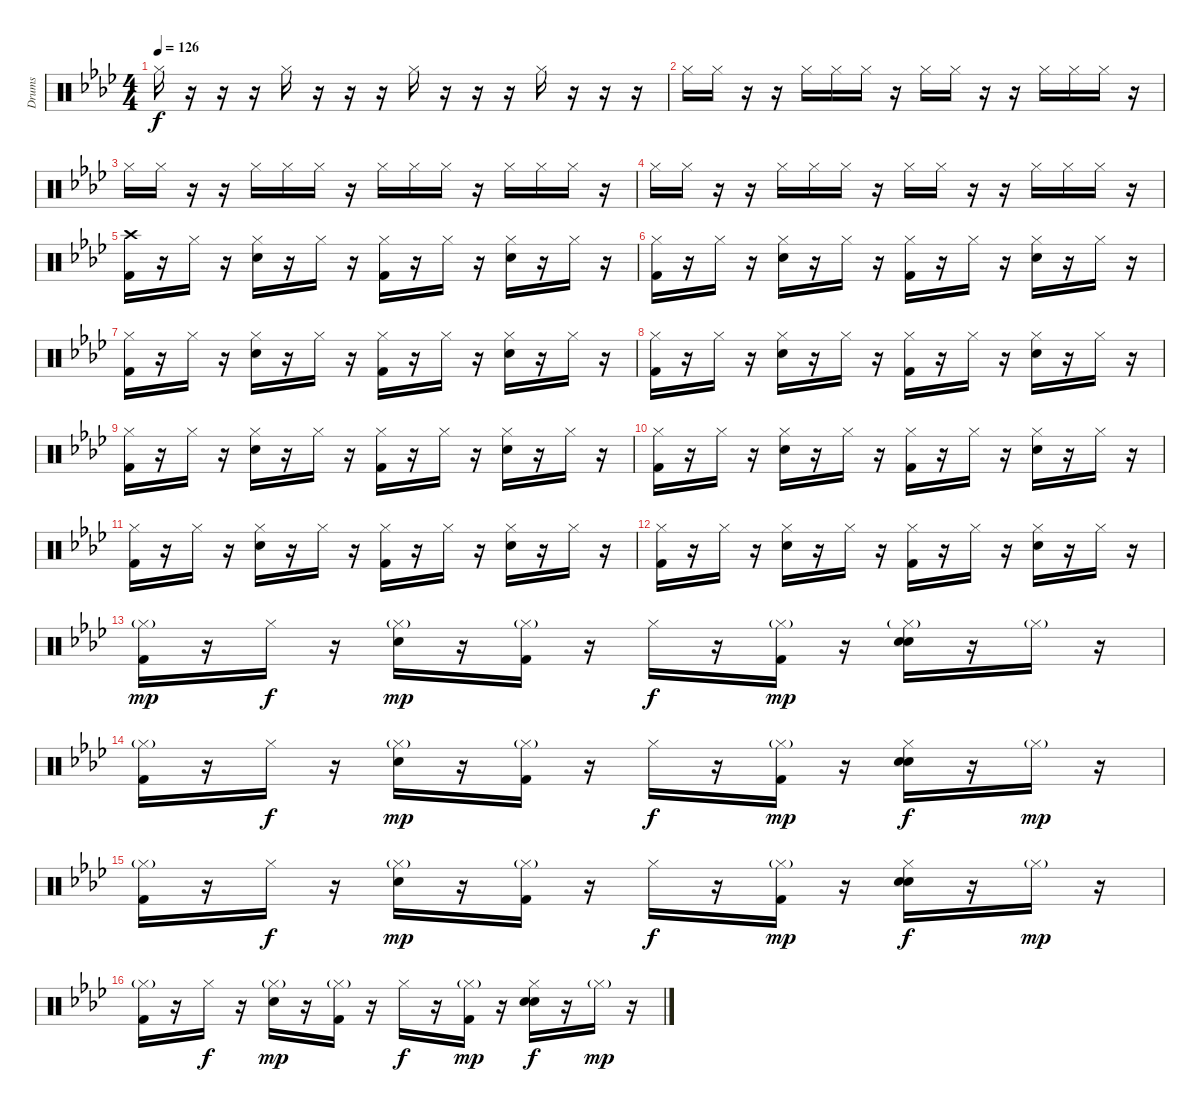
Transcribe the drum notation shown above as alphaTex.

\track ("Drums" "Drums") {instrument percussion}
\staff {score}
\articulation defaults
\ts (4 4)
\tempo 126
\clef neutral
\ks ab "Hi-Hat (closed)".16{dy f}
r.16 r.16 r.16 "Hi-Hat (closed)".16 r.16 r.16 r.16 "Hi-Hat (closed)".16 r.16 r.16 r.16 "Hi-Hat (closed)".16 r.16 r.16 r.16 |
"Hi-Hat (closed)".16 "Hi-Hat (closed)".16 r.16 r.16 "Hi-Hat (closed)".16 "Hi-Hat (closed)".16 "Hi-Hat (closed)".16 r.16 "Hi-Hat (closed)".16 "Hi-Hat (closed)".16 r.16 r.16 "Hi-Hat (closed)".16 "Hi-Hat (closed)".16 "Hi-Hat (closed)".16 r.16 |
"Hi-Hat (closed)".16 "Hi-Hat (closed)".16 r.16 r.16 "Hi-Hat (closed)".16 "Hi-Hat (closed)".16 "Hi-Hat (closed)".16 r.16 "Hi-Hat (closed)".16 "Hi-Hat (closed)".16 "Hi-Hat (closed)".16 r.16 "Hi-Hat (closed)".16 "Hi-Hat (closed)".16 "Hi-Hat (closed)".16 r.16 |
"Hi-Hat (closed)".16 "Hi-Hat (closed)".16 r.16 r.16 "Hi-Hat (closed)".16 "Hi-Hat (closed)".16 "Hi-Hat (closed)".16 r.16 "Hi-Hat (closed)".16 "Hi-Hat (closed)".16 r.16 r.16 "Hi-Hat (closed)".16 "Hi-Hat (closed)".16 "Hi-Hat (closed)".16 r.16 |
("Crash high (hit)" "Kick (hit) 2").16 r.16 "Hi-Hat (closed)".16 r.16 ("Hi-Hat (closed)" "Snare (hit) 2").16 r.16 "Hi-Hat (closed)".16 r.16 ("Hi-Hat (closed)" "Kick (hit) 2").16 r.16 "Hi-Hat (closed)".16 r.16 ("Hi-Hat (closed)" "Snare (hit) 2").16 r.16 "Hi-Hat (closed)".16 r.16 |
("Hi-Hat (closed)" "Kick (hit) 2").16 r.16 "Hi-Hat (closed)".16 r.16 ("Hi-Hat (closed)" "Snare (hit) 2").16 r.16 "Hi-Hat (closed)".16 r.16 ("Hi-Hat (closed)" "Kick (hit) 2").16 r.16 "Hi-Hat (closed)".16 r.16 ("Hi-Hat (closed)" "Snare (hit) 2").16 r.16 "Hi-Hat (closed)".16 r.16 |
("Hi-Hat (closed)" "Kick (hit) 2").16 r.16 "Hi-Hat (closed)".16 r.16 ("Hi-Hat (closed)" "Snare (hit) 2").16 r.16 "Hi-Hat (closed)".16 r.16 ("Hi-Hat (closed)" "Kick (hit) 2").16 r.16 "Hi-Hat (closed)".16 r.16 ("Hi-Hat (closed)" "Snare (hit) 2").16 r.16 "Hi-Hat (closed)".16 r.16 |
("Hi-Hat (closed)" "Kick (hit) 2").16 r.16 "Hi-Hat (closed)".16 r.16 ("Hi-Hat (closed)" "Snare (hit) 2").16 r.16 "Hi-Hat (closed)".16 r.16 ("Hi-Hat (closed)" "Kick (hit) 2").16 r.16 "Hi-Hat (closed)".16 r.16 ("Hi-Hat (closed)" "Snare (hit) 2").16 r.16 "Hi-Hat (closed)".16 r.16 |
("Hi-Hat (closed)" "Kick (hit) 2").16 r.16 "Hi-Hat (closed)".16 r.16 ("Hi-Hat (closed)" "Snare (hit) 2").16 r.16 "Hi-Hat (closed)".16 r.16 ("Hi-Hat (closed)" "Kick (hit) 2").16 r.16 "Hi-Hat (closed)".16 r.16 ("Hi-Hat (closed)" "Snare (hit) 2").16 r.16 "Hi-Hat (closed)".16 r.16 |
("Hi-Hat (closed)" "Kick (hit) 2").16 r.16 "Hi-Hat (closed)".16 r.16 ("Hi-Hat (closed)" "Snare (hit) 2").16 r.16 "Hi-Hat (closed)".16 r.16 ("Hi-Hat (closed)" "Kick (hit) 2").16 r.16 "Hi-Hat (closed)".16 r.16 ("Hi-Hat (closed)" "Snare (hit) 2").16 r.16 "Hi-Hat (closed)".16 r.16 |
("Hi-Hat (closed)" "Kick (hit) 2").16 r.16 "Hi-Hat (closed)".16 r.16 ("Hi-Hat (closed)" "Snare (hit) 2").16 r.16 "Hi-Hat (closed)".16 r.16 ("Hi-Hat (closed)" "Kick (hit) 2").16 r.16 "Hi-Hat (closed)".16 r.16 ("Hi-Hat (closed)" "Snare (hit) 2").16 r.16 "Hi-Hat (closed)".16 r.16 |
("Hi-Hat (closed)" "Kick (hit) 2").16 r.16 "Hi-Hat (closed)".16 r.16 ("Hi-Hat (closed)" "Snare (hit) 2").16 r.16 "Hi-Hat (closed)".16 r.16 ("Hi-Hat (closed)" "Kick (hit) 2").16 r.16 "Hi-Hat (closed)".16 r.16 ("Hi-Hat (closed)" "Snare (hit) 2").16 r.16 "Hi-Hat (closed)".16 r.16 |
("Hi-Hat (closed)"{g} "Kick (hit) 2").16{dy mp} r.16 "Hi-Hat (closed)".16{dy f} r.16 ("Hi-Hat (closed)"{g} "Snare (hit) 2").16{dy mp} r.16 ("Hi-Hat (closed)"{g} "Kick (hit) 2").16 r.16 "Hi-Hat (closed)".16{dy f} r.16 ("Hi-Hat (closed)"{g} "Kick (hit) 2").16{dy mp} r.16 ("Hi-Hat (closed)"{g} "Hand Clap (hit)" "Snare (hit) 2").16 r.16 "Hi-Hat (closed)"{g}.16 r.16 |
("Hi-Hat (closed)"{g} "Kick (hit) 2").16 r.16 "Hi-Hat (closed)".16{dy f} r.16 ("Hi-Hat (closed)"{g} "Snare (hit) 2").16{dy mp} r.16 ("Hi-Hat (closed)"{g} "Kick (hit) 2").16 r.16 "Hi-Hat (closed)".16{dy f} r.16 ("Hi-Hat (closed)"{g} "Kick (hit) 2").16{dy mp} r.16 ("Hi-Hat (closed)" "Hand Clap (hit)" "Snare (hit) 2").16{dy f} r.16 "Hi-Hat (closed)"{g}.16{dy mp} r.16 |
("Hi-Hat (closed)"{g} "Kick (hit) 2").16 r.16 "Hi-Hat (closed)".16{dy f} r.16 ("Hi-Hat (closed)"{g} "Snare (hit) 2").16{dy mp} r.16 ("Hi-Hat (closed)"{g} "Kick (hit) 2").16 r.16 "Hi-Hat (closed)".16{dy f} r.16 ("Hi-Hat (closed)"{g} "Kick (hit) 2").16{dy mp} r.16 ("Hi-Hat (closed)" "Hand Clap (hit)" "Snare (hit) 2").16{dy f} r.16 "Hi-Hat (closed)"{g}.16{dy mp} r.16 |
("Hi-Hat (closed)"{g} "Kick (hit) 2").16 r.16 "Hi-Hat (closed)".16{dy f} r.16 ("Hi-Hat (closed)"{g} "Snare (hit) 2").16{dy mp} r.16 ("Hi-Hat (closed)"{g} "Kick (hit) 2").16 r.16 "Hi-Hat (closed)".16{dy f} r.16 ("Hi-Hat (closed)"{g} "Kick (hit) 2").16{dy mp} r.16 ("Hi-Hat (closed)" "Hand Clap (hit)" "Snare (hit) 2").16{dy f} r.16 "Hi-Hat (closed)"{g}.16{dy mp} r.16
